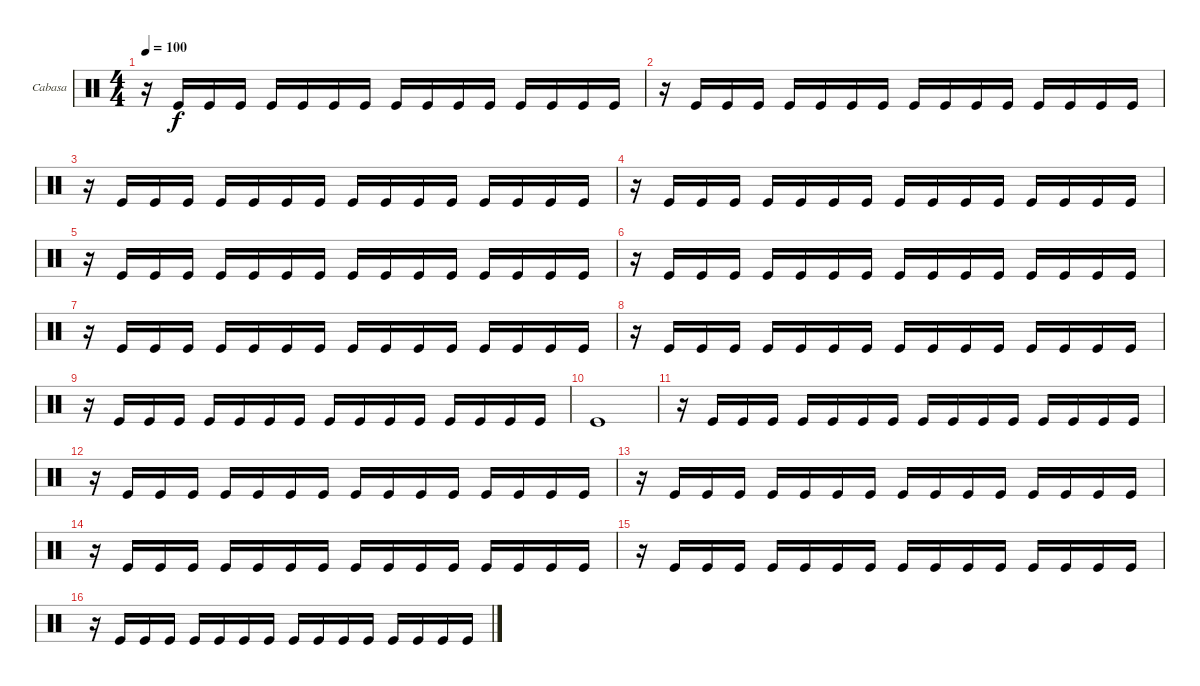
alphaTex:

\bracketExtendMode groupsimilarinstruments
\firstSystemTrackNameOrientation horizontal
\otherSystemsTrackNameOrientation horizontal
\track ("Cabasa" "Cabasa") {instrument percussion}
\staff {score}
\articulation defaults
\ts (4 4)
\tempo 100
\clef neutral
\ks c
r.16{dy f} "Kick (hit)".16 "Kick (hit)".16 "Kick (hit)".16 "Kick (hit)".16 "Kick (hit)".16 "Kick (hit)".16 "Kick (hit)".16 "Kick (hit)".16 "Kick (hit)".16 "Kick (hit)".16 "Kick (hit)".16 "Kick (hit)".16 "Kick (hit)".16 "Kick (hit)".16 "Kick (hit)".16 |
r.16 "Kick (hit)".16 "Kick (hit)".16 "Kick (hit)".16 "Kick (hit)".16 "Kick (hit)".16 "Kick (hit)".16 "Kick (hit)".16 "Kick (hit)".16 "Kick (hit)".16 "Kick (hit)".16 "Kick (hit)".16 "Kick (hit)".16 "Kick (hit)".16 "Kick (hit)".16 "Kick (hit)".16 |
r.16 "Kick (hit)".16 "Kick (hit)".16 "Kick (hit)".16 "Kick (hit)".16 "Kick (hit)".16 "Kick (hit)".16 "Kick (hit)".16 "Kick (hit)".16 "Kick (hit)".16 "Kick (hit)".16 "Kick (hit)".16 "Kick (hit)".16 "Kick (hit)".16 "Kick (hit)".16 "Kick (hit)".16 |
r.16 "Kick (hit)".16 "Kick (hit)".16 "Kick (hit)".16 "Kick (hit)".16 "Kick (hit)".16 "Kick (hit)".16 "Kick (hit)".16 "Kick (hit)".16 "Kick (hit)".16 "Kick (hit)".16 "Kick (hit)".16 "Kick (hit)".16 "Kick (hit)".16 "Kick (hit)".16 "Kick (hit)".16 |
r.16 "Kick (hit)".16 "Kick (hit)".16 "Kick (hit)".16 "Kick (hit)".16 "Kick (hit)".16 "Kick (hit)".16 "Kick (hit)".16 "Kick (hit)".16 "Kick (hit)".16 "Kick (hit)".16 "Kick (hit)".16 "Kick (hit)".16 "Kick (hit)".16 "Kick (hit)".16 "Kick (hit)".16 |
r.16 "Kick (hit)".16 "Kick (hit)".16 "Kick (hit)".16 "Kick (hit)".16 "Kick (hit)".16 "Kick (hit)".16 "Kick (hit)".16 "Kick (hit)".16 "Kick (hit)".16 "Kick (hit)".16 "Kick (hit)".16 "Kick (hit)".16 "Kick (hit)".16 "Kick (hit)".16 "Kick (hit)".16 |
r.16 "Kick (hit)".16 "Kick (hit)".16 "Kick (hit)".16 "Kick (hit)".16 "Kick (hit)".16 "Kick (hit)".16 "Kick (hit)".16 "Kick (hit)".16 "Kick (hit)".16 "Kick (hit)".16 "Kick (hit)".16 "Kick (hit)".16 "Kick (hit)".16 "Kick (hit)".16 "Kick (hit)".16 |
r.16 "Kick (hit)".16 "Kick (hit)".16 "Kick (hit)".16 "Kick (hit)".16 "Kick (hit)".16 "Kick (hit)".16 "Kick (hit)".16 "Kick (hit)".16 "Kick (hit)".16 "Kick (hit)".16 "Kick (hit)".16 "Kick (hit)".16 "Kick (hit)".16 "Kick (hit)".16 "Kick (hit)".16 |
r.16 "Kick (hit)".16 "Kick (hit)".16 "Kick (hit)".16 "Kick (hit)".16 "Kick (hit)".16 "Kick (hit)".16 "Kick (hit)".16 "Kick (hit)".16 "Kick (hit)".16 "Kick (hit)".16 "Kick (hit)".16 "Kick (hit)".16 "Kick (hit)".16 "Kick (hit)".16 "Kick (hit)".16 |
"Kick (hit)".1 |
r.16 "Kick (hit)".16 "Kick (hit)".16 "Kick (hit)".16 "Kick (hit)".16 "Kick (hit)".16 "Kick (hit)".16 "Kick (hit)".16 "Kick (hit)".16 "Kick (hit)".16 "Kick (hit)".16 "Kick (hit)".16 "Kick (hit)".16 "Kick (hit)".16 "Kick (hit)".16 "Kick (hit)".16 |
r.16 "Kick (hit)".16 "Kick (hit)".16 "Kick (hit)".16 "Kick (hit)".16 "Kick (hit)".16 "Kick (hit)".16 "Kick (hit)".16 "Kick (hit)".16 "Kick (hit)".16 "Kick (hit)".16 "Kick (hit)".16 "Kick (hit)".16 "Kick (hit)".16 "Kick (hit)".16 "Kick (hit)".16 |
r.16 "Kick (hit)".16 "Kick (hit)".16 "Kick (hit)".16 "Kick (hit)".16 "Kick (hit)".16 "Kick (hit)".16 "Kick (hit)".16 "Kick (hit)".16 "Kick (hit)".16 "Kick (hit)".16 "Kick (hit)".16 "Kick (hit)".16 "Kick (hit)".16 "Kick (hit)".16 "Kick (hit)".16 |
r.16 "Kick (hit)".16 "Kick (hit)".16 "Kick (hit)".16 "Kick (hit)".16 "Kick (hit)".16 "Kick (hit)".16 "Kick (hit)".16 "Kick (hit)".16 "Kick (hit)".16 "Kick (hit)".16 "Kick (hit)".16 "Kick (hit)".16 "Kick (hit)".16 "Kick (hit)".16 "Kick (hit)".16 |
r.16 "Kick (hit)".16 "Kick (hit)".16 "Kick (hit)".16 "Kick (hit)".16 "Kick (hit)".16 "Kick (hit)".16 "Kick (hit)".16 "Kick (hit)".16 "Kick (hit)".16 "Kick (hit)".16 "Kick (hit)".16 "Kick (hit)".16 "Kick (hit)".16 "Kick (hit)".16 "Kick (hit)".16 |
r.16 "Kick (hit)".16 "Kick (hit)".16 "Kick (hit)".16 "Kick (hit)".16 "Kick (hit)".16 "Kick (hit)".16 "Kick (hit)".16 "Kick (hit)".16 "Kick (hit)".16 "Kick (hit)".16 "Kick (hit)".16 "Kick (hit)".16 "Kick (hit)".16 "Kick (hit)".16 "Kick (hit)".16
